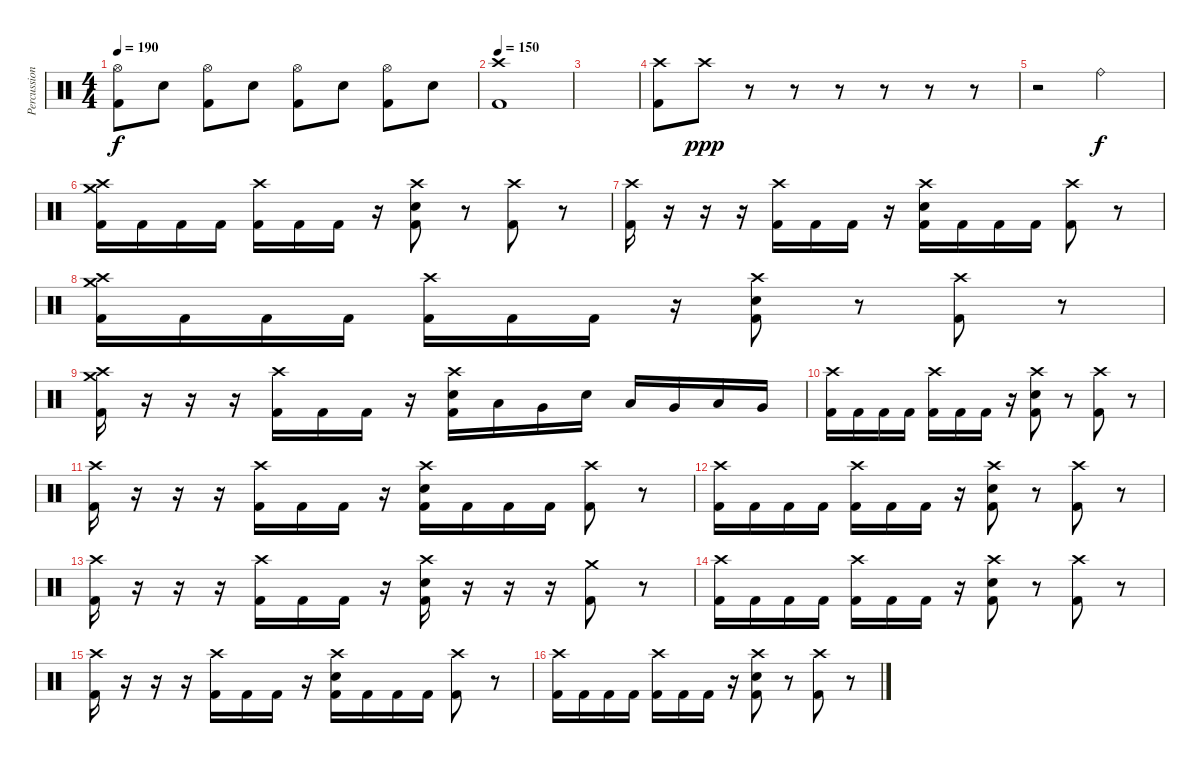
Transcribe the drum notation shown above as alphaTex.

\track ("Percussion" "Percussion") {instrument percussion}
\staff {score}
\articulation defaults
\ts (4 4)
\tempo 190
\clef neutral
\ks c
("Hi-Hat (open)" "Kick (hit) 2").8{dy f} "Electric Snare (hit)".8 ("Hi-Hat (open)" "Kick (hit) 2").8 "Electric Snare (hit)".8 ("Hi-Hat (open)" "Kick (hit) 2").8 "Electric Snare (hit)".8 ("Hi-Hat (open)" "Kick (hit) 2").8 "Electric Snare (hit)".8 |
\tempo 150
("Crash high (hit)" "Kick (hit) 2").1 |
|
("Crash high (hit)" "Kick (hit) 2").8 "Crash high (hit)".8{dy ppp} r.8 r.8 r.8 r.8 r.8 r.8 |
r.2 "Ride (bell)".2{dy f} |
("Crash medium (hit)" "Crash high (hit)" "Kick (hit) 2").16 "Kick (hit) 2".16 "Kick (hit) 2".16 "Kick (hit) 2".16 ("Crash high (hit)" "Kick (hit) 2").16 "Kick (hit) 2".16 "Kick (hit) 2".16 r.16 ("Crash high (hit)" "Electric Snare (hit)" "Kick (hit) 2").8 r.8 ("Crash high (hit)" "Kick (hit) 2").8 r.8 |
("Crash high (hit)" "Kick (hit) 2").16 r.16 r.16 r.16 ("Crash high (hit)" "Kick (hit) 2").16 "Kick (hit) 2".16 "Kick (hit) 2".16 r.16 ("Crash high (hit)" "Electric Snare (hit)" "Kick (hit) 2").16 "Kick (hit) 2".16 "Kick (hit) 2".16 "Kick (hit) 2".16 ("Crash high (hit)" "Kick (hit) 2").8 r.8 |
("Crash medium (hit)" "Crash high (hit)" "Kick (hit) 2").16 "Kick (hit) 2".16 "Kick (hit) 2".16 "Kick (hit) 2".16 ("Crash high (hit)" "Kick (hit) 2").16 "Kick (hit) 2".16 "Kick (hit) 2".16 r.16 ("Crash high (hit)" "Electric Snare (hit)" "Kick (hit) 2").8 r.8 ("Crash high (hit)" "Kick (hit) 2").8 r.8 |
("Crash medium (hit)" "Crash high (hit)" "Kick (hit) 2").16 r.16 r.16 r.16 ("Crash high (hit)" "Kick (hit) 2").16 "Kick (hit) 2".16 "Kick (hit) 2".16 r.16 ("Crash high (hit)" "Electric Snare (hit)" "Kick (hit) 2").16 "Low Tom (hit)".16 "Very Low Tom (hit)".16 "Electric Snare (hit)".16 "Low Tom (hit)".16 "Very Low Tom (hit)".16 "Low Floor Tom (hit)".16 "Very Low Tom (hit)".16 |
("Crash high (hit)" "Kick (hit) 2").16 "Kick (hit) 2".16 "Kick (hit) 2".16 "Kick (hit) 2".16 ("Crash high (hit)" "Kick (hit) 2").16 "Kick (hit) 2".16 "Kick (hit) 2".16 r.16 ("Crash high (hit)" "Electric Snare (hit)" "Kick (hit) 2").8 r.8 ("Crash high (hit)" "Kick (hit) 2").8 r.8 |
("Crash high (hit)" "Kick (hit) 2").16 r.16 r.16 r.16 ("Crash high (hit)" "Kick (hit) 2").16 "Kick (hit) 2".16 "Kick (hit) 2".16 r.16 ("Crash high (hit)" "Electric Snare (hit)" "Kick (hit) 2").16 "Kick (hit) 2".16 "Kick (hit) 2".16 "Kick (hit) 2".16 ("Crash high (hit)" "Kick (hit) 2").8 r.8 |
("Crash high (hit)" "Kick (hit) 2").16 "Kick (hit) 2".16 "Kick (hit) 2".16 "Kick (hit) 2".16 ("Crash high (hit)" "Kick (hit) 2").16 "Kick (hit) 2".16 "Kick (hit) 2".16 r.16 ("Crash high (hit)" "Electric Snare (hit)" "Kick (hit) 2").8 r.8 ("Crash high (hit)" "Kick (hit) 2").8 r.8 |
("Crash high (hit)" "Kick (hit) 2").16 r.16 r.16 r.16 ("Crash high (hit)" "Kick (hit) 2").16 "Kick (hit) 2".16 "Kick (hit) 2".16 r.16 ("Crash high (hit)" "Electric Snare (hit)" "Kick (hit) 2").16 r.16 r.16 r.16 ("Crash medium (hit)" "Kick (hit) 2").8 r.8 |
("Crash high (hit)" "Kick (hit) 2").16 "Kick (hit) 2".16 "Kick (hit) 2".16 "Kick (hit) 2".16 ("Crash high (hit)" "Kick (hit) 2").16 "Kick (hit) 2".16 "Kick (hit) 2".16 r.16 ("Crash high (hit)" "Electric Snare (hit)" "Kick (hit) 2").8 r.8 ("Crash high (hit)" "Kick (hit) 2").8 r.8 |
("Crash high (hit)" "Kick (hit) 2").16 r.16 r.16 r.16 ("Crash high (hit)" "Kick (hit) 2").16 "Kick (hit) 2".16 "Kick (hit) 2".16 r.16 ("Crash high (hit)" "Electric Snare (hit)" "Kick (hit) 2").16 "Kick (hit) 2".16 "Kick (hit) 2".16 "Kick (hit) 2".16 ("Crash high (hit)" "Kick (hit) 2").8 r.8 |
("Crash high (hit)" "Kick (hit) 2").16 "Kick (hit) 2".16 "Kick (hit) 2".16 "Kick (hit) 2".16 ("Crash high (hit)" "Kick (hit) 2").16 "Kick (hit) 2".16 "Kick (hit) 2".16 r.16 ("Crash high (hit)" "Electric Snare (hit)" "Kick (hit) 2").8 r.8 ("Crash high (hit)" "Kick (hit) 2").8 r.8
